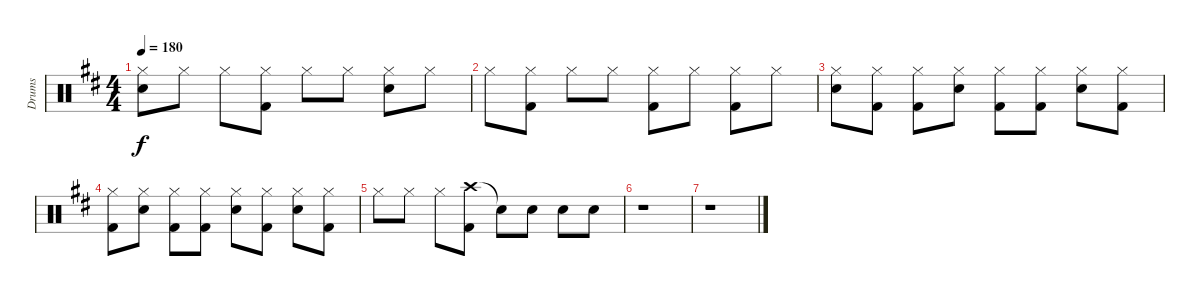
\track ("Drums" "Drums") {instrument percussion}
\staff {score}
\articulation defaults
\ts (4 4)
\tempo 180
\clef neutral
\ks bminor
("Hi-Hat (closed)" "Electric Snare (hit)").8{dy f} "Hi-Hat (closed)".8 "Hi-Hat (closed)".8 ("Hi-Hat (closed)" "Kick (hit) 2").8 "Hi-Hat (closed)".8 "Hi-Hat (closed)".8 ("Hi-Hat (closed)" "Electric Snare (hit)").8 "Hi-Hat (closed)".8 |
"Hi-Hat (closed)".8 ("Hi-Hat (closed)" "Kick (hit) 2").8 "Hi-Hat (closed)".8 "Hi-Hat (closed)".8 ("Hi-Hat (closed)" "Kick (hit) 2").8 "Hi-Hat (closed)".8 ("Hi-Hat (closed)" "Kick (hit) 2").8 "Hi-Hat (closed)".8 |
("Hi-Hat (closed)" "Electric Snare (hit)").8 ("Hi-Hat (closed)" "Kick (hit) 2").8 ("Hi-Hat (closed)" "Kick (hit) 2").8 ("Hi-Hat (closed)" "Electric Snare (hit)").8 ("Hi-Hat (closed)" "Kick (hit) 2").8 ("Hi-Hat (closed)" "Kick (hit) 2").8 ("Hi-Hat (closed)" "Electric Snare (hit)").8 ("Hi-Hat (closed)" "Kick (hit) 2").8 |
("Hi-Hat (closed)" "Kick (hit) 2").8 ("Hi-Hat (closed)" "Electric Snare (hit)").8 ("Hi-Hat (closed)" "Kick (hit) 2").8 ("Hi-Hat (closed)" "Kick (hit) 2").8 ("Hi-Hat (closed)" "Electric Snare (hit)").8 ("Hi-Hat (closed)" "Kick (hit) 2").8 ("Hi-Hat (closed)" "Electric Snare (hit)").8 ("Hi-Hat (closed)" "Kick (hit) 2").8 |
"Hi-Hat (closed)".8 "Hi-Hat (closed)".8 "Hi-Hat (closed)".8 ("Crash high (hit)" "Kick (hit) 2").8 "Snare (hit)"{t}.8 "Electric Snare (hit)".8 "Electric Snare (hit)".8 "Electric Snare (hit)".8 |
r.1 |
r.1
